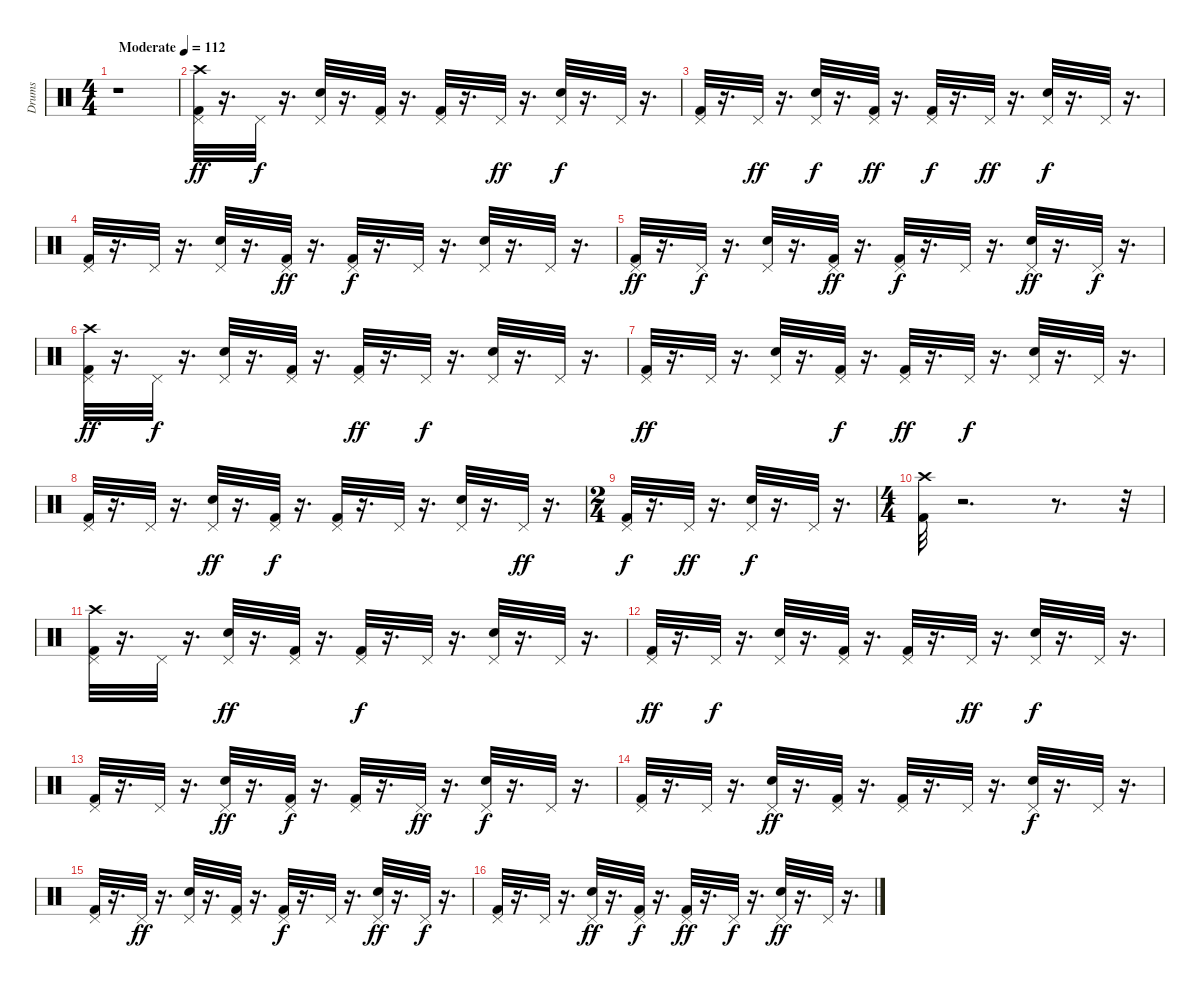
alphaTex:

\track ("Drums" "Drums") {instrument percussion}
\staff {score}
\articulation defaults
\ts (4 4)
\tempo (112 "Moderate")
\clef neutral
\ks c
r.1{dy ff} |
("Crash high (hit)" "Kick (hit) 2" "Pedal Hi-Hat (hit)").32 r.16{d} "Pedal Hi-Hat (hit)".32{dy f} r.16{d} ("Snare (hit) 2" "Pedal Hi-Hat (hit)").32 r.16{d} ("Kick (hit) 2" "Pedal Hi-Hat (hit)").32 r.16{d} ("Kick (hit) 2" "Pedal Hi-Hat (hit)").32 r.16{d} "Pedal Hi-Hat (hit)".32{dy ff} r.16{d} ("Snare (hit) 2" "Pedal Hi-Hat (hit)").32{dy f} r.16{d} "Pedal Hi-Hat (hit)".32 r.16{d} |
("Pedal Hi-Hat (hit)" "Kick (hit) 2").32 r.16{d} "Pedal Hi-Hat (hit)".32{dy ff} r.16{d} ("Snare (hit) 2" "Pedal Hi-Hat (hit)").32{dy f} r.16{d} ("Kick (hit) 2" "Pedal Hi-Hat (hit)").32{dy ff} r.16{d} ("Kick (hit) 2" "Pedal Hi-Hat (hit)").32{dy f} r.16{d} "Pedal Hi-Hat (hit)".32{dy ff} r.16{d} ("Pedal Hi-Hat (hit)" "Snare (hit) 2").32{dy f} r.16{d} "Pedal Hi-Hat (hit)".32 r.16{d} |
("Kick (hit) 2" "Pedal Hi-Hat (hit)").32 r.16{d} "Pedal Hi-Hat (hit)".32 r.16{d} ("Pedal Hi-Hat (hit)" "Snare (hit) 2").32 r.16{d} ("Kick (hit) 2" "Pedal Hi-Hat (hit)").32{dy ff} r.16{d} ("Pedal Hi-Hat (hit)" "Kick (hit) 2").32{dy f} r.16{d} "Pedal Hi-Hat (hit)".32 r.16{d} ("Snare (hit) 2" "Pedal Hi-Hat (hit)").32 r.16{d} "Pedal Hi-Hat (hit)".32 r.16{d} |
("Pedal Hi-Hat (hit)" "Kick (hit) 2").32{dy ff} r.16{d} "Pedal Hi-Hat (hit)".32{dy f} r.16{d} ("Pedal Hi-Hat (hit)" "Snare (hit) 2").32 r.16{d} ("Pedal Hi-Hat (hit)" "Kick (hit) 2").32{dy ff} r.16{d} ("Pedal Hi-Hat (hit)" "Kick (hit) 2").32{dy f} r.16{d} "Pedal Hi-Hat (hit)".32 r.16{d} ("Pedal Hi-Hat (hit)" "Snare (hit) 2").32{dy ff} r.16{d} "Pedal Hi-Hat (hit)".32{dy f} r.16{d} |
("Crash high (hit)" "Kick (hit) 2" "Pedal Hi-Hat (hit)").32{dy ff} r.16{d} "Pedal Hi-Hat (hit)".32{dy f} r.16{d} ("Pedal Hi-Hat (hit)" "Snare (hit) 2").32 r.16{d} ("Pedal Hi-Hat (hit)" "Kick (hit) 2").32 r.16{d} ("Pedal Hi-Hat (hit)" "Kick (hit) 2").32{dy ff} r.16{d} "Pedal Hi-Hat (hit)".32{dy f} r.16{d} ("Snare (hit) 2" "Pedal Hi-Hat (hit)").32 r.16{d} "Pedal Hi-Hat (hit)".32 r.16{d} |
("Kick (hit) 2" "Pedal Hi-Hat (hit)").32{dy ff} r.16{d} "Pedal Hi-Hat (hit)".32 r.16{d} ("Snare (hit) 2" "Pedal Hi-Hat (hit)").32 r.16{d} ("Pedal Hi-Hat (hit)" "Kick (hit) 2").32{dy f} r.16{d} ("Pedal Hi-Hat (hit)" "Kick (hit) 2").32{dy ff} r.16{d} "Pedal Hi-Hat (hit)".32{dy f} r.16{d} ("Snare (hit) 2" "Pedal Hi-Hat (hit)").32 r.16{d} "Pedal Hi-Hat (hit)".32 r.16{d} |
("Pedal Hi-Hat (hit)" "Kick (hit) 2").32 r.16{d} "Pedal Hi-Hat (hit)".32 r.16{d} ("Pedal Hi-Hat (hit)" "Snare (hit) 2").32{dy ff} r.16{d} ("Pedal Hi-Hat (hit)" "Kick (hit) 2").32{dy f} r.16{d} ("Kick (hit) 2" "Pedal Hi-Hat (hit)").32 r.16{d} "Pedal Hi-Hat (hit)".32 r.16{d} ("Snare (hit) 2" "Pedal Hi-Hat (hit)").32 r.16{d} "Pedal Hi-Hat (hit)".32{dy ff} r.16{d} |
\ts (2 4)
("Kick (hit) 2" "Pedal Hi-Hat (hit)").32{dy f} r.16{d} "Pedal Hi-Hat (hit)".32{dy ff} r.16{d} ("Snare (hit) 2" "Pedal Hi-Hat (hit)").32{dy f} r.16{d} "Pedal Hi-Hat (hit)".32 r.16{d} |
\ts (4 4)
("Crash high (hit)" "Kick (hit) 2").32 r.2{d} r.8{d} r.32 |
("Pedal Hi-Hat (hit)" "Kick (hit) 2" "Crash high (hit)").32 r.16{d} "Pedal Hi-Hat (hit)".32 r.16{d} ("Pedal Hi-Hat (hit)" "Snare (hit) 2").32{dy ff} r.16{d} ("Pedal Hi-Hat (hit)" "Kick (hit) 2").32 r.16{d} ("Pedal Hi-Hat (hit)" "Kick (hit) 2").32{dy f} r.16{d} "Pedal Hi-Hat (hit)".32 r.16{d} ("Pedal Hi-Hat (hit)" "Snare (hit) 2").32 r.16{d} "Pedal Hi-Hat (hit)".32 r.16{d} |
("Pedal Hi-Hat (hit)" "Kick (hit) 2").32{dy ff} r.16{d} "Pedal Hi-Hat (hit)".32{dy f} r.16{d} ("Snare (hit) 2" "Pedal Hi-Hat (hit)").32 r.16{d} ("Kick (hit) 2" "Pedal Hi-Hat (hit)").32 r.16{d} ("Pedal Hi-Hat (hit)" "Kick (hit) 2").32 r.16{d} "Pedal Hi-Hat (hit)".32{dy ff} r.16{d} ("Snare (hit) 2" "Pedal Hi-Hat (hit)").32{dy f} r.16{d} "Pedal Hi-Hat (hit)".32 r.16{d} |
("Kick (hit) 2" "Pedal Hi-Hat (hit)").32 r.16{d} "Pedal Hi-Hat (hit)".32 r.16{d} ("Snare (hit) 2" "Pedal Hi-Hat (hit)").32{dy ff} r.16{d} ("Kick (hit) 2" "Pedal Hi-Hat (hit)").32{dy f} r.16{d} ("Pedal Hi-Hat (hit)" "Kick (hit) 2").32 r.16{d} "Pedal Hi-Hat (hit)".32{dy ff} r.16{d} ("Snare (hit) 2" "Pedal Hi-Hat (hit)").32{dy f} r.16{d} "Pedal Hi-Hat (hit)".32 r.16{d} |
("Kick (hit) 2" "Pedal Hi-Hat (hit)").32 r.16{d} "Pedal Hi-Hat (hit)".32 r.16{d} ("Snare (hit) 2" "Pedal Hi-Hat (hit)").32{dy ff} r.16{d} ("Kick (hit) 2" "Pedal Hi-Hat (hit)").32 r.16{d} ("Kick (hit) 2" "Pedal Hi-Hat (hit)").32 r.16{d} "Pedal Hi-Hat (hit)".32 r.16{d} ("Snare (hit) 2" "Pedal Hi-Hat (hit)").32{dy f} r.16{d} "Pedal Hi-Hat (hit)".32 r.16{d} |
("Pedal Hi-Hat (hit)" "Kick (hit) 2").32 r.16{d} "Pedal Hi-Hat (hit)".32{dy ff} r.16{d} ("Snare (hit) 2" "Pedal Hi-Hat (hit)").32 r.16{d} ("Kick (hit) 2" "Pedal Hi-Hat (hit)").32 r.16{d} ("Kick (hit) 2" "Pedal Hi-Hat (hit)").32{dy f} r.16{d} "Pedal Hi-Hat (hit)".32 r.16{d} ("Pedal Hi-Hat (hit)" "Snare (hit) 2").32{dy ff} r.16{d} "Pedal Hi-Hat (hit)".32{dy f} r.16{d} |
("Kick (hit) 2" "Pedal Hi-Hat (hit)").32 r.16{d} "Pedal Hi-Hat (hit)".32 r.16{d} ("Snare (hit) 2" "Pedal Hi-Hat (hit)").32{dy ff} r.16{d} ("Pedal Hi-Hat (hit)" "Kick (hit) 2").32{dy f} r.16{d} ("Pedal Hi-Hat (hit)" "Kick (hit) 2").32{dy ff} r.16{d} "Pedal Hi-Hat (hit)".32{dy f} r.16{d} ("Pedal Hi-Hat (hit)" "Snare (hit) 2").32{dy ff} r.16{d} "Pedal Hi-Hat (hit)".32 r.16{d}
